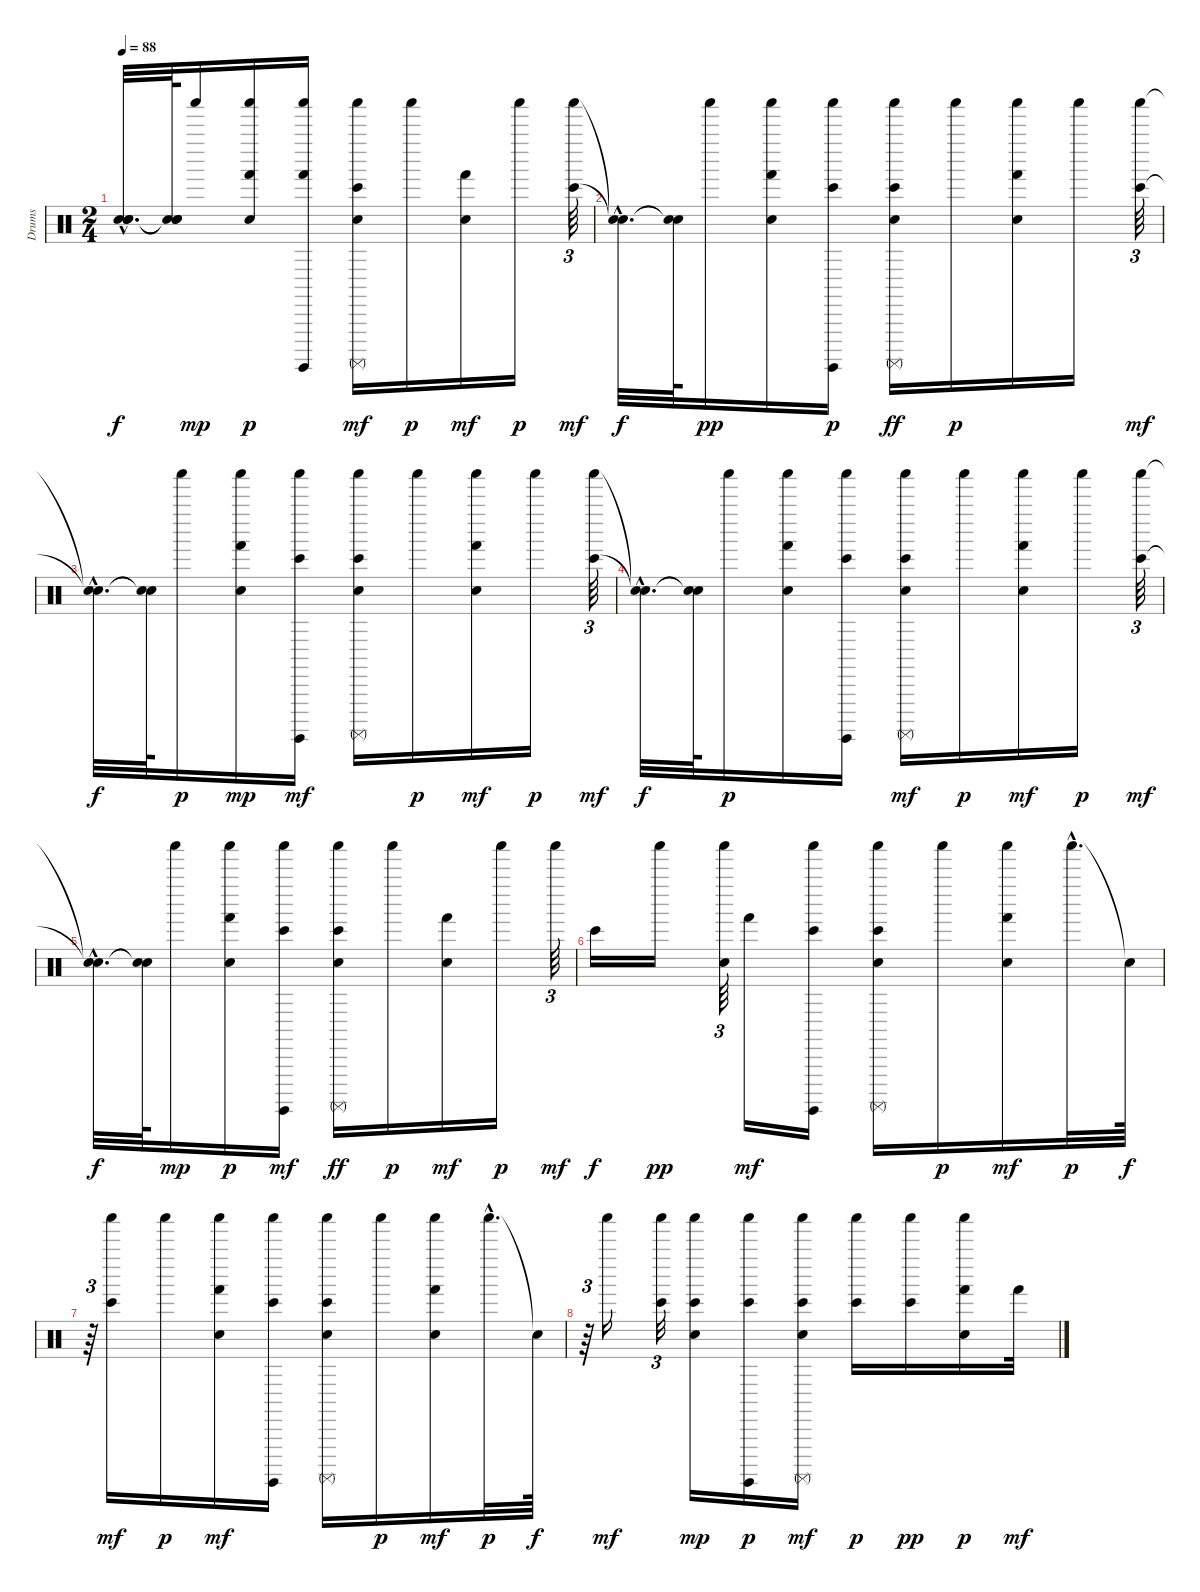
\track ("Drums" "Drums") {instrument percussion}
\staff {score}
\articulation defaults
\ts (2 4)
\tempo 88
\clef neutral
\ks c
("Snare (hit)"{hac t} "Snare (hit)"{hac t} "Snare (hit)"{hac t}).32{d dy f} ("Snare (hit)"{t} "Snare (hit)"{t} "Snare (hit)"{t}).64 "Shaker (hit)".16{dy mp} ("Hand (hit)" "Hand Clap (hit)" "Shaker (hit)").16{dy p} ("Shaker (hit)" "Surdo (hit)" "Hand (hit)").16 ("Hand Clap (hit)" "Shaker (hit)" "Surdo (mute)" "Bongo High (hit)").16{dy mf} "Shaker (hit)".16{dy p} ("Hand Clap (hit)" "Hand (hit)").16{dy mf} "Shaker (hit)".16{dy p} ("Bongo High (hit)" "Shaker (hit)").64{tu (3 2) dy mf} |
("Snare (hit)"{hac t} "Snare (hit)"{hac t}).32{d dy f} ("Snare (hit)"{t} "Snare (hit)"{t}).64 "Shaker (hit)".16{dy pp} ("Shaker (hit)" "Hand Clap (hit)" "Hand (hit)").16 ("Bongo High (hit)" "Shaker (hit)" "Surdo (hit)").16{dy p} ("Hand Clap (hit)" "Bongo High (hit)" "Shaker (hit)" "Surdo (mute)").16{dy ff} "Shaker (hit)".16{dy p} ("Hand Clap (hit)" "Hand (hit)" "Shaker (hit)").16 "Shaker (hit)".16 ("Shaker (hit)" "Bongo High (hit)").64{tu (3 2) dy mf} |
("Snare (hit)"{hac t} "Snare (hit)"{hac t}).32{d dy f} ("Snare (hit)"{t} "Snare (hit)"{t}).64 "Shaker (hit)".16{dy p} ("Shaker (hit)" "Hand Clap (hit)" "Hand (hit)").16{dy mp} ("Shaker (hit)" "Surdo (hit)" "Bongo High (hit)").16{dy mf} ("Shaker (hit)" "Hand Clap (hit)" "Surdo (mute)" "Bongo High (hit)").16 "Shaker (hit)".16{dy p} ("Shaker (hit)" "Hand Clap (hit)" "Hand (hit)").16{dy mf} "Shaker (hit)".16{dy p} ("Shaker (hit)" "Bongo High (hit)").64{tu (3 2) dy mf} |
("Snare (hit)"{hac t} "Snare (hit)"{hac t}).32{d dy f} ("Snare (hit)"{t} "Snare (hit)"{t}).64 "Shaker (hit)".16{dy p} ("Shaker (hit)" "Hand (hit)" "Hand Clap (hit)").16 ("Shaker (hit)" "Surdo (hit)" "Bongo High (hit)").16 ("Shaker (hit)" "Hand Clap (hit)" "Surdo (mute)" "Bongo High (hit)").16{dy mf} "Shaker (hit)".16{dy p} ("Shaker (hit)" "Hand (hit)" "Hand Clap (hit)").16{dy mf} "Shaker (hit)".16{dy p} ("Shaker (hit)" "Bongo High (hit)").64{tu (3 2) dy mf} |
("Snare (hit)"{hac t} "Snare (hit)"{hac t}).32{d dy f} ("Snare (hit)"{t} "Snare (hit)"{t}).64 "Shaker (hit)".16{dy mp} ("Hand Clap (hit)" "Hand (hit)" "Shaker (hit)").16{dy p} ("Shaker (hit)" "Surdo (hit)" "Bongo High (hit)").16{dy mf} ("Shaker (hit)" "Hand Clap (hit)" "Surdo (mute)" "Bongo High (hit)").16{dy ff} "Shaker (hit)".16{dy p} ("Hand Clap (hit)" "Hand (hit)").16{dy mf} "Shaker (hit)".16{dy p} "Shaker (hit)".64{tu (3 2) dy mf} |
"Bongo High (hit)".16{dy f} "Shaker (hit)".16{dy pp} ("Hand Clap (hit)" "Shaker (hit)").64{tu (3 2)} "Hand (hit)".16{dy mf} ("Shaker (hit)" "Bongo High (hit)" "Surdo (hit)").16 ("Hand Clap (hit)" "Shaker (hit)" "Surdo (mute)" "Bongo High (hit)").16 "Shaker (hit)".16{dy p} ("Hand Clap (hit)" "Shaker (hit)" "Hand (hit)").16{dy mf} "Shaker (hit)"{hac}.32{d dy p} "Snare (hit)"{t}.64{dy f} |
r.64{tu (3 2)} ("Shaker (hit)" "Bongo High (hit)").16{dy mf} "Shaker (hit)".16{dy p} ("Hand Clap (hit)" "Shaker (hit)" "Hand (hit)").16{dy mf} ("Shaker (hit)" "Bongo High (hit)" "Surdo (hit)").16 ("Shaker (hit)" "Hand Clap (hit)" "Bongo High (hit)" "Surdo (mute)").16 "Shaker (hit)".16{dy p} ("Shaker (hit)" "Hand (hit)" "Hand Clap (hit)").16{dy mf} "Shaker (hit)"{hac}.32{d dy p} "Snare (hit)"{t}.64{dy f} |
r.64{tu (3 2)} "Shaker (hit)".16{dy mf} ("Shaker (hit)" "Bongo High (hit)").32{tu (3 2)} ("Bongo High (hit)" "Shaker (hit)" "Hand Clap (hit)").16{dy mp} ("Bongo High (hit)" "Surdo (hit)" "Shaker (hit)").16{dy p} ("Bongo High (hit)" "Hand Clap (hit)" "Shaker (hit)" "Surdo (mute)").16{dy mf} ("Bongo High (hit)" "Shaker (hit)").16{dy p} ("Bongo High (hit)" "Shaker (hit)").16{dy pp} ("Hand Clap (hit)" "Hand (hit)" "Shaker (hit)").16{dy p} "Hand (hit)".32{dy mf}
